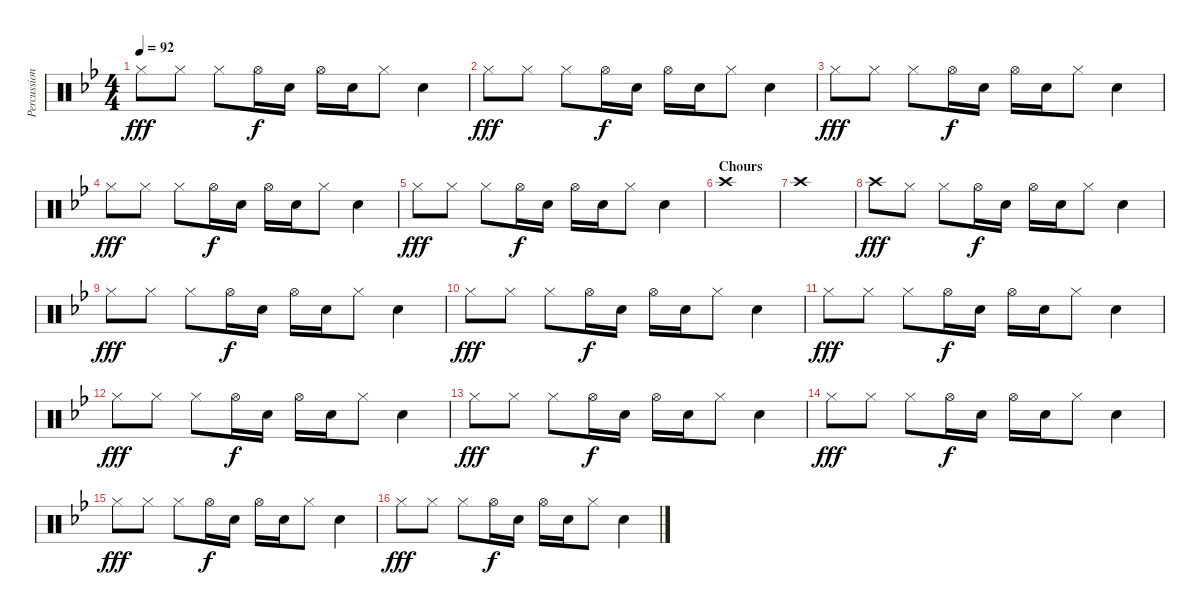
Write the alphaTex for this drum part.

\track ("Percussion" "Percussion") {instrument percussion}
\staff {score}
\articulation defaults
\ts (4 4)
\tempo 92
\clef neutral
\ks bb "Hi-Hat (closed)".8{dy fff} "Hi-Hat (closed)".8 "Hi-Hat (closed)".8 "Hi-Hat (open)".16{dy f} "Snare (hit) 2".16 "Hi-Hat (open)".16 "Snare (hit) 2".16 "Hi-Hat (closed)".8 "Snare (hit) 2".4
|
"Hi-Hat (closed)".8{dy fff} "Hi-Hat (closed)".8 "Hi-Hat (closed)".8 "Hi-Hat (open)".16{dy f} "Snare (hit) 2".16 "Hi-Hat (open)".16 "Snare (hit) 2".16 "Hi-Hat (closed)".8 "Snare (hit) 2".4 |
"Hi-Hat (closed)".8{dy fff} "Hi-Hat (closed)".8 "Hi-Hat (closed)".8 "Hi-Hat (open)".16{dy f} "Snare (hit) 2".16 "Hi-Hat (open)".16 "Snare (hit) 2".16 "Hi-Hat (closed)".8 "Snare (hit) 2".4 |
"Hi-Hat (closed)".8{dy fff} "Hi-Hat (closed)".8 "Hi-Hat (closed)".8 "Hi-Hat (open)".16{dy f} "Snare (hit) 2".16 "Hi-Hat (open)".16 "Snare (hit) 2".16 "Hi-Hat (closed)".8 "Snare (hit) 2".4 |
"Hi-Hat (closed)".8{dy fff} "Hi-Hat (closed)".8 "Hi-Hat (closed)".8 "Hi-Hat (open)".16{dy f} "Snare (hit) 2".16 "Hi-Hat (open)".16 "Snare (hit) 2".16 "Hi-Hat (closed)".8 "Snare (hit) 2".4 |
\section ("" "Chours")
"Crash high (hit)".1 |
"Crash high (hit)".1 |
"Crash high (hit)".8{dy fff} "Hi-Hat (closed)".8 "Hi-Hat (closed)".8 "Hi-Hat (open)".16{dy f} "Snare (hit) 2".16 "Hi-Hat (open)".16 "Snare (hit) 2".16 "Hi-Hat (closed)".8 "Snare (hit) 2".4 |
"Hi-Hat (closed)".8{dy fff} "Hi-Hat (closed)".8 "Hi-Hat (closed)".8 "Hi-Hat (open)".16{dy f} "Snare (hit) 2".16 "Hi-Hat (open)".16 "Snare (hit) 2".16 "Hi-Hat (closed)".8 "Snare (hit) 2".4 |
"Hi-Hat (closed)".8{dy fff} "Hi-Hat (closed)".8 "Hi-Hat (closed)".8 "Hi-Hat (open)".16{dy f} "Snare (hit) 2".16 "Hi-Hat (open)".16 "Snare (hit) 2".16 "Hi-Hat (closed)".8 "Snare (hit) 2".4 |
"Hi-Hat (closed)".8{dy fff} "Hi-Hat (closed)".8 "Hi-Hat (closed)".8 "Hi-Hat (open)".16{dy f} "Snare (hit) 2".16 "Hi-Hat (open)".16 "Snare (hit) 2".16 "Hi-Hat (closed)".8 "Snare (hit) 2".4 |
"Hi-Hat (closed)".8{dy fff} "Hi-Hat (closed)".8 "Hi-Hat (closed)".8 "Hi-Hat (open)".16{dy f} "Snare (hit) 2".16 "Hi-Hat (open)".16 "Snare (hit) 2".16 "Hi-Hat (closed)".8 "Snare (hit) 2".4 |
"Hi-Hat (closed)".8{dy fff} "Hi-Hat (closed)".8 "Hi-Hat (closed)".8 "Hi-Hat (open)".16{dy f} "Snare (hit) 2".16 "Hi-Hat (open)".16 "Snare (hit) 2".16 "Hi-Hat (closed)".8 "Snare (hit) 2".4 |
"Hi-Hat (closed)".8{dy fff} "Hi-Hat (closed)".8 "Hi-Hat (closed)".8 "Hi-Hat (open)".16{dy f} "Snare (hit) 2".16 "Hi-Hat (open)".16 "Snare (hit) 2".16 "Hi-Hat (closed)".8 "Snare (hit) 2".4 |
"Hi-Hat (closed)".8{dy fff} "Hi-Hat (closed)".8 "Hi-Hat (closed)".8 "Hi-Hat (open)".16{dy f} "Snare (hit) 2".16 "Hi-Hat (open)".16 "Snare (hit) 2".16 "Hi-Hat (closed)".8 "Snare (hit) 2".4 |
"Hi-Hat (closed)".8{dy fff} "Hi-Hat (closed)".8 "Hi-Hat (closed)".8 "Hi-Hat (open)".16{dy f} "Snare (hit) 2".16 "Hi-Hat (open)".16 "Snare (hit) 2".16 "Hi-Hat (closed)".8 "Snare (hit) 2".4
